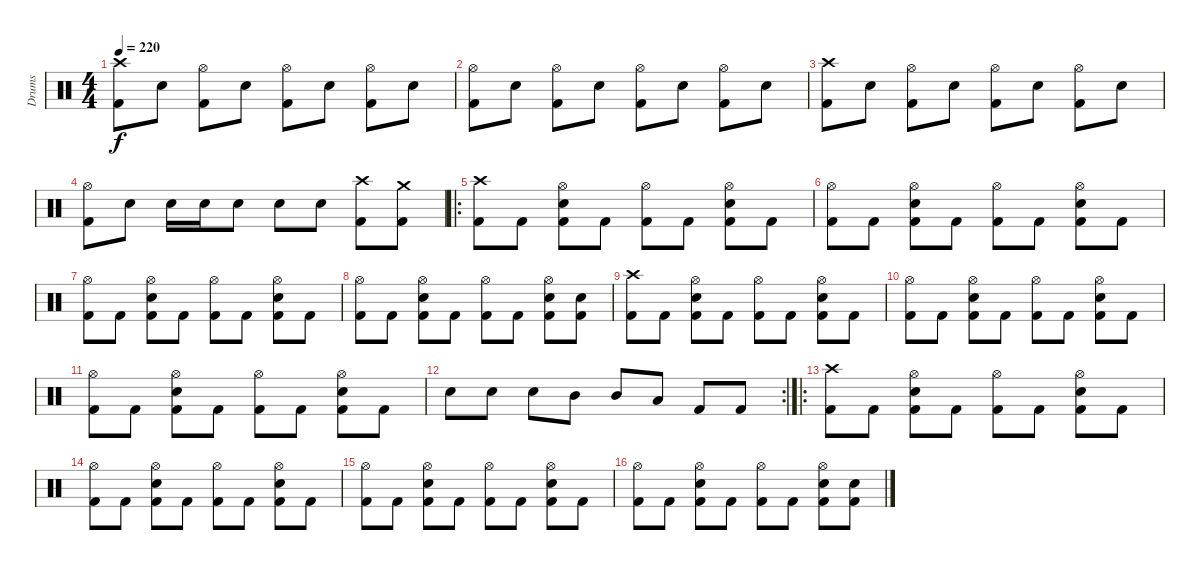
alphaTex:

\track ("Drums" "Drums") {instrument percussion}
\staff {score}
\articulation defaults
\ts (4 4)
\tempo 220
\clef neutral
\ks c
("Kick (hit) 2" "Crash high (hit)").8{dy f} "Electric Snare (hit)".8 ("Kick (hit) 2" "Hi-Hat (open)").8 "Electric Snare (hit)".8 ("Kick (hit) 2" "Hi-Hat (open)").8 "Electric Snare (hit)".8 ("Kick (hit) 2" "Hi-Hat (open)").8 "Electric Snare (hit)".8 |
("Kick (hit) 2" "Hi-Hat (open)").8 "Electric Snare (hit)".8 ("Kick (hit) 2" "Hi-Hat (open)").8 "Electric Snare (hit)".8 ("Kick (hit) 2" "Hi-Hat (open)").8 "Electric Snare (hit)".8 ("Kick (hit) 2" "Hi-Hat (open)").8 "Electric Snare (hit)".8 |
("Kick (hit) 2" "Crash high (hit)").8 "Electric Snare (hit)".8 ("Kick (hit) 2" "Hi-Hat (open)").8 "Electric Snare (hit)".8 ("Kick (hit) 2" "Hi-Hat (open)").8 "Electric Snare (hit)".8 ("Kick (hit) 2" "Hi-Hat (open)").8 "Electric Snare (hit)".8 |
("Kick (hit) 2" "Hi-Hat (open)").8 "Electric Snare (hit)".8 "Electric Snare (hit)".16 "Electric Snare (hit)".16 "Electric Snare (hit)".8 "Electric Snare (hit)".8 "Electric Snare (hit)".8 ("Kick (hit) 2" "Crash high (hit)").8 ("Kick (hit) 2" "Crash medium (hit)").8 |
\ro
("Kick (hit) 2" "Crash high (hit)").8 "Kick (hit) 2".8 ("Kick (hit) 2" "Electric Snare (hit)" "Hi-Hat (open)").8 "Kick (hit) 2".8 ("Kick (hit) 2" "Hi-Hat (open)").8 "Kick (hit) 2".8 ("Kick (hit) 2" "Electric Snare (hit)" "Hi-Hat (open)").8 "Kick (hit) 2".8 |
("Kick (hit) 2" "Hi-Hat (open)").8 "Kick (hit) 2".8 ("Kick (hit) 2" "Electric Snare (hit)" "Hi-Hat (open)").8 "Kick (hit) 2".8 ("Kick (hit) 2" "Hi-Hat (open)").8 "Kick (hit) 2".8 ("Kick (hit) 2" "Electric Snare (hit)" "Hi-Hat (open)").8 "Kick (hit) 2".8 |
("Kick (hit) 2" "Hi-Hat (open)").8 "Kick (hit) 2".8 ("Kick (hit) 2" "Electric Snare (hit)" "Hi-Hat (open)").8 "Kick (hit) 2".8 ("Kick (hit) 2" "Hi-Hat (open)").8 "Kick (hit) 2".8 ("Kick (hit) 2" "Electric Snare (hit)" "Hi-Hat (open)").8 "Kick (hit) 2".8 |
("Kick (hit) 2" "Hi-Hat (open)").8 "Kick (hit) 2".8 ("Kick (hit) 2" "Electric Snare (hit)" "Hi-Hat (open)").8 "Kick (hit) 2".8 ("Kick (hit) 2" "Hi-Hat (open)").8 "Kick (hit) 2".8 ("Kick (hit) 2" "Electric Snare (hit)" "Hi-Hat (open)").8 ("Kick (hit) 2" "Electric Snare (hit)").8 |
("Kick (hit) 2" "Crash high (hit)").8 "Kick (hit) 2".8 ("Kick (hit) 2" "Electric Snare (hit)" "Hi-Hat (open)").8 "Kick (hit) 2".8 ("Kick (hit) 2" "Hi-Hat (open)").8 "Kick (hit) 2".8 ("Kick (hit) 2" "Electric Snare (hit)" "Hi-Hat (open)").8 "Kick (hit) 2".8 |
("Kick (hit) 2" "Hi-Hat (open)").8 "Kick (hit) 2".8 ("Kick (hit) 2" "Electric Snare (hit)" "Hi-Hat (open)").8 "Kick (hit) 2".8 ("Kick (hit) 2" "Hi-Hat (open)").8 "Kick (hit) 2".8 ("Kick (hit) 2" "Electric Snare (hit)" "Hi-Hat (open)").8 "Kick (hit) 2".8 |
("Kick (hit) 2" "Hi-Hat (open)").8 "Kick (hit) 2".8 ("Kick (hit) 2" "Electric Snare (hit)" "Hi-Hat (open)").8 "Kick (hit) 2".8 ("Kick (hit) 2" "Hi-Hat (open)").8 "Kick (hit) 2".8 ("Kick (hit) 2" "Electric Snare (hit)" "Hi-Hat (open)").8 "Kick (hit) 2".8 |
\rc 2 "Electric Snare (hit)".8 "Electric Snare (hit)".8 "Electric Snare (hit)".8 "Mid Tom (hit)".8 "Mid Tom (hit)".8 "Low Tom (hit)".8 "Kick (hit) 2".8 "Kick (hit) 2".8
|
\ro
("Kick (hit) 2" "Crash high (hit)").8 "Kick (hit) 2".8 ("Kick (hit) 2" "Electric Snare (hit)" "Hi-Hat (open)").8 "Kick (hit) 2".8 ("Kick (hit) 2" "Hi-Hat (open)").8 "Kick (hit) 2".8 ("Kick (hit) 2" "Electric Snare (hit)" "Hi-Hat (open)").8 "Kick (hit) 2".8 |
("Kick (hit) 2" "Hi-Hat (open)").8 "Kick (hit) 2".8 ("Kick (hit) 2" "Electric Snare (hit)" "Hi-Hat (open)").8 "Kick (hit) 2".8 ("Kick (hit) 2" "Hi-Hat (open)").8 "Kick (hit) 2".8 ("Kick (hit) 2" "Electric Snare (hit)" "Hi-Hat (open)").8 "Kick (hit) 2".8 |
("Kick (hit) 2" "Hi-Hat (open)").8 "Kick (hit) 2".8 ("Kick (hit) 2" "Electric Snare (hit)" "Hi-Hat (open)").8 "Kick (hit) 2".8 ("Kick (hit) 2" "Hi-Hat (open)").8 "Kick (hit) 2".8 ("Kick (hit) 2" "Electric Snare (hit)" "Hi-Hat (open)").8 "Kick (hit) 2".8 |
("Kick (hit) 2" "Hi-Hat (open)").8 "Kick (hit) 2".8 ("Kick (hit) 2" "Electric Snare (hit)" "Hi-Hat (open)").8 "Kick (hit) 2".8 ("Kick (hit) 2" "Hi-Hat (open)").8 "Kick (hit) 2".8 ("Kick (hit) 2" "Electric Snare (hit)" "Hi-Hat (open)").8 ("Kick (hit) 2" "Electric Snare (hit)").8
